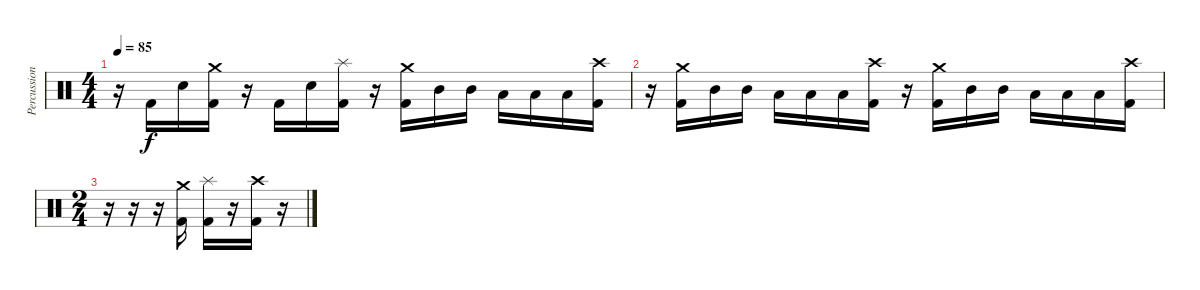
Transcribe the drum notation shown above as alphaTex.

\track ("Percussion" "Percussion") {instrument percussion}
\staff {score}
\articulation defaults
\ts (4 4)
\tempo 85
\clef neutral
\ks c
r.16{dy f} "Kick (hit) 2".16 "Snare (hit) 2".16 ("Crash medium (hit)" "Kick (hit) 2").16 r.16 "Kick (hit) 2".16 "Snare (hit) 2".16 ("Splash (hit)" "Kick (hit) 2").16 r.16 ("Crash medium (hit)" "Kick (hit) 2").16 "Mid Tom (hit)".16 "Mid Tom (hit)".16 "Low Tom (hit)".16 "Low Tom (hit)".16 "Low Tom (hit)".16 ("Crash high (hit)" "Kick (hit) 2").16 |
r.16 ("Crash medium (hit)" "Kick (hit) 2").16 "Mid Tom (hit)".16 "Mid Tom (hit)".16 "Low Tom (hit)".16 "Low Tom (hit)".16 "Low Tom (hit)".16 ("Crash high (hit)" "Kick (hit) 2").16 r.16 ("Crash medium (hit)" "Kick (hit) 2").16 "Mid Tom (hit)".16 "Mid Tom (hit)".16 "Low Tom (hit)".16 "Low Tom (hit)".16 "Low Tom (hit)".16 ("Crash high (hit)" "Kick (hit) 2").16 |
\ts (2 4)
r.16 r.16 r.16 ("Crash medium (hit)" "Kick (hit) 2").16 ("Splash (hit)" "Kick (hit) 2").16 r.16 ("Crash high (hit)" "Kick (hit) 2").16 r.16
